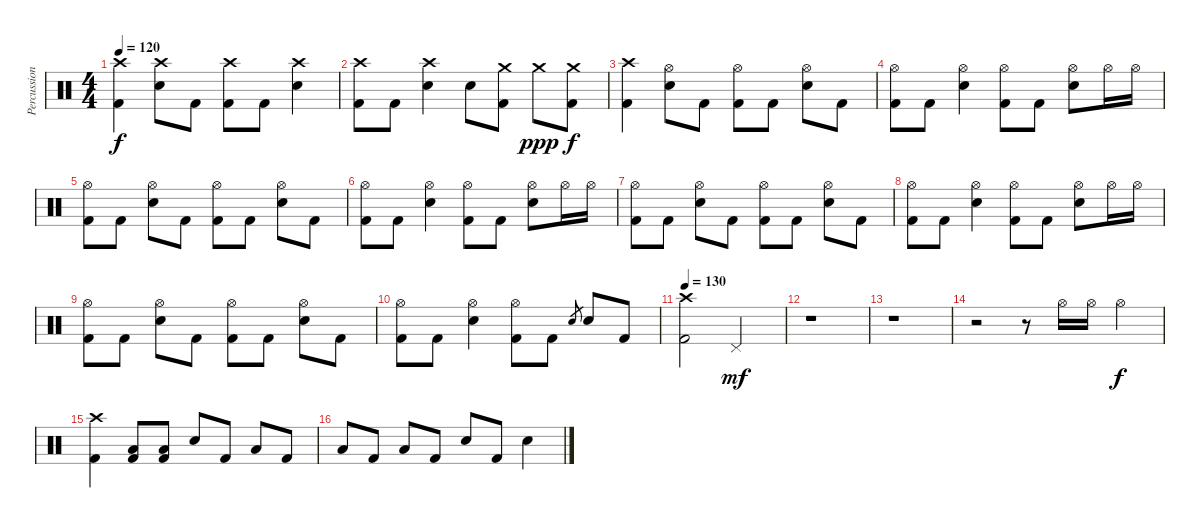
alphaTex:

\track ("Percussion" "Percussion") {instrument percussion}
\staff {score}
\articulation defaults
\ts (4 4)
\tempo 120
\clef neutral
\ks c
("Crash high (hit)" "Kick (hit) 2").4{dy f} ("Crash high (hit)" "Electric Snare (hit)").8 "Kick (hit) 2".8 ("Crash high (hit)" "Kick (hit) 2").8 "Kick (hit) 2".8 ("Crash high (hit)" "Electric Snare (hit)").4 |
("Crash high (hit)" "Kick (hit) 2").8 "Kick (hit) 2".8 ("Crash high (hit)" "Electric Snare (hit)").4 "Electric Snare (hit)".8 ("Crash medium (hit)" "Kick (hit) 2").8 "Crash medium (hit)".8{dy ppp} ("Crash medium (hit)" "Kick (hit) 2").8{dy f} |
("Crash high (hit)" "Kick (hit) 2").4 ("Hi-Hat (open)" "Electric Snare (hit)").8 "Kick (hit) 2".8 ("Hi-Hat (open)" "Kick (hit) 2").8 "Kick (hit) 2".8 ("Hi-Hat (open)" "Electric Snare (hit)").8 "Kick (hit) 2".8 |
("Hi-Hat (open)" "Kick (hit) 2").8 "Kick (hit) 2".8 ("Hi-Hat (open)" "Electric Snare (hit)").4 ("Hi-Hat (open)" "Kick (hit) 2").8 "Kick (hit) 2".8 ("Hi-Hat (open)" "Electric Snare (hit)").8 "Hi-Hat (open)".16 "Hi-Hat (open)".16 |
("Hi-Hat (open)" "Kick (hit) 2").8 "Kick (hit) 2".8 ("Hi-Hat (open)" "Electric Snare (hit)").8 "Kick (hit) 2".8 ("Hi-Hat (open)" "Kick (hit) 2").8 "Kick (hit) 2".8 ("Hi-Hat (open)" "Electric Snare (hit)").8 "Kick (hit) 2".8 |
("Hi-Hat (open)" "Kick (hit) 2").8 "Kick (hit) 2".8 ("Hi-Hat (open)" "Electric Snare (hit)").4 ("Hi-Hat (open)" "Kick (hit) 2").8 "Kick (hit) 2".8 ("Hi-Hat (open)" "Electric Snare (hit)").8 "Hi-Hat (open)".16 "Hi-Hat (open)".16 |
("Hi-Hat (open)" "Kick (hit) 2").8 "Kick (hit) 2".8 ("Hi-Hat (open)" "Electric Snare (hit)").8 "Kick (hit) 2".8 ("Hi-Hat (open)" "Kick (hit) 2").8 "Kick (hit) 2".8 ("Hi-Hat (open)" "Electric Snare (hit)").8 "Kick (hit) 2".8 |
("Hi-Hat (open)" "Kick (hit) 2").8 "Kick (hit) 2".8 ("Hi-Hat (open)" "Electric Snare (hit)").4 ("Hi-Hat (open)" "Kick (hit) 2").8 "Kick (hit) 2".8 ("Hi-Hat (open)" "Electric Snare (hit)").8 "Hi-Hat (open)".16 "Hi-Hat (open)".16 |
("Hi-Hat (open)" "Kick (hit) 2").8 "Kick (hit) 2".8 ("Hi-Hat (open)" "Electric Snare (hit)").8 "Kick (hit) 2".8 ("Hi-Hat (open)" "Kick (hit) 2").8 "Kick (hit) 2".8 ("Hi-Hat (open)" "Electric Snare (hit)").8 "Kick (hit) 2".8 |
("Hi-Hat (open)" "Kick (hit) 2").8 "Kick (hit) 2".8 ("Hi-Hat (open)" "Electric Snare (hit)").4 ("Hi-Hat (open)" "Kick (hit) 2").8 "Kick (hit) 2".8 "Electric Snare (hit)".8{gr} "Electric Snare (hit)".8 "Kick (hit) 2".8 |
\tempo 130
("Crash high (hit)" "Kick (hit) 2").2 "Pedal Hi-Hat (hit)".2{dy mf} |
r.1 |
r.1 |
r.2 r.8 "Hi-Hat (open)".16 "Hi-Hat (open)".16 "Hi-Hat (open)".4{dy f} |
("Crash high (hit)" "Kick (hit) 2").4 ("Low Floor Tom (hit)" "Kick (hit) 2").8 ("Low Floor Tom (hit)" "Kick (hit) 2").8 "Electric Snare (hit)".8 "Kick (hit) 2".8 "Low Tom (hit)".8 "Kick (hit) 2".8 |
"Low Floor Tom (hit)".8 "Kick (hit) 2".8 "Low Floor Tom (hit)".8 "Kick (hit) 2".8 "Electric Snare (hit)".8 "Kick (hit) 2".8 "Electric Snare (hit)".4
